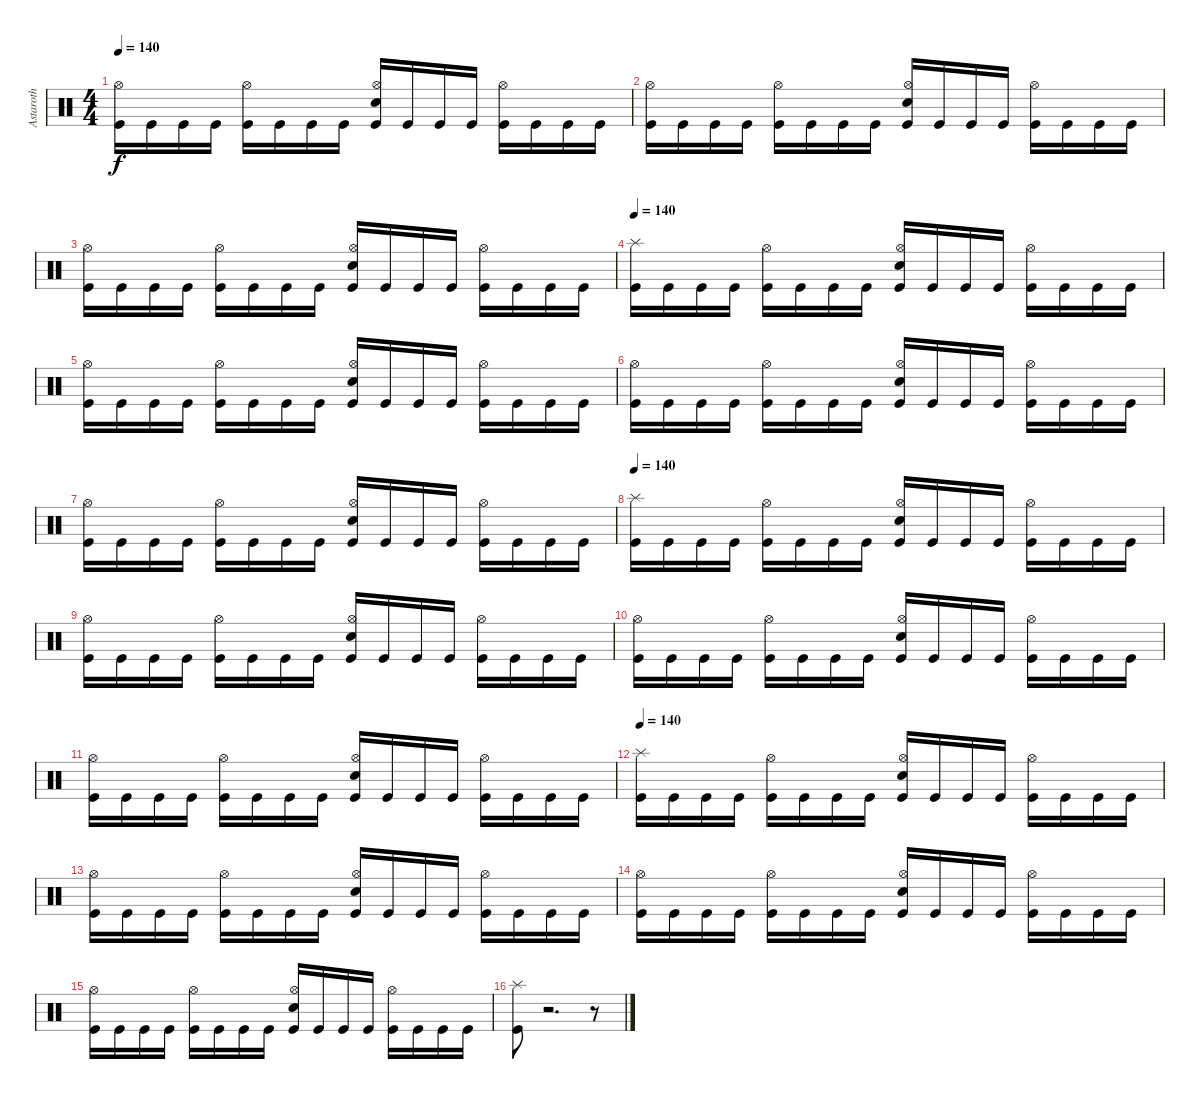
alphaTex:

\track ("Astaroth" "Astaroth") {instrument percussion}
\staff {score}
\articulation defaults
\ts (4 4)
\tempo 140
\clef neutral
\ks c
("Kick (hit)" "Hi-Hat (open)").16{dy f} "Kick (hit)".16 "Kick (hit)".16 "Kick (hit)".16 ("Kick (hit)" "Hi-Hat (open)").16 "Kick (hit)".16 "Kick (hit)".16 "Kick (hit)".16 ("Kick (hit)" "Hi-Hat (open)" "Electric Snare (hit)").16 "Kick (hit)".16 "Kick (hit)".16 "Kick (hit)".16 ("Kick (hit)" "Hi-Hat (open)").16 "Kick (hit)".16 "Kick (hit)".16 "Kick (hit)".16 |
("Kick (hit)" "Hi-Hat (open)").16 "Kick (hit)".16 "Kick (hit)".16 "Kick (hit)".16 ("Kick (hit)" "Hi-Hat (open)").16 "Kick (hit)".16 "Kick (hit)".16 "Kick (hit)".16 ("Kick (hit)" "Hi-Hat (open)" "Electric Snare (hit)").16 "Kick (hit)".16 "Kick (hit)".16 "Kick (hit)".16 ("Kick (hit)" "Hi-Hat (open)").16 "Kick (hit)".16 "Kick (hit)".16 "Kick (hit)".16 |
("Kick (hit)" "Hi-Hat (open)").16 "Kick (hit)".16 "Kick (hit)".16 "Kick (hit)".16 ("Kick (hit)" "Hi-Hat (open)").16 "Kick (hit)".16 "Kick (hit)".16 "Kick (hit)".16 ("Kick (hit)" "Hi-Hat (open)" "Electric Snare (hit)").16 "Kick (hit)".16 "Kick (hit)".16 "Kick (hit)".16 ("Kick (hit)" "Hi-Hat (open)").16 "Kick (hit)".16 "Kick (hit)".16 "Kick (hit)".16 |
\tempo 140
("Kick (hit)" "Splash (hit)").16 "Kick (hit)".16 "Kick (hit)".16 "Kick (hit)".16 ("Kick (hit)" "Hi-Hat (open)").16 "Kick (hit)".16 "Kick (hit)".16 "Kick (hit)".16 ("Kick (hit)" "Hi-Hat (open)" "Electric Snare (hit)").16 "Kick (hit)".16 "Kick (hit)".16 "Kick (hit)".16 ("Kick (hit)" "Hi-Hat (open)").16 "Kick (hit)".16 "Kick (hit)".16 "Kick (hit)".16 |
("Kick (hit)" "Hi-Hat (open)").16 "Kick (hit)".16 "Kick (hit)".16 "Kick (hit)".16 ("Kick (hit)" "Hi-Hat (open)").16 "Kick (hit)".16 "Kick (hit)".16 "Kick (hit)".16 ("Kick (hit)" "Hi-Hat (open)" "Electric Snare (hit)").16 "Kick (hit)".16 "Kick (hit)".16 "Kick (hit)".16 ("Kick (hit)" "Hi-Hat (open)").16 "Kick (hit)".16 "Kick (hit)".16 "Kick (hit)".16 |
("Kick (hit)" "Hi-Hat (open)").16 "Kick (hit)".16 "Kick (hit)".16 "Kick (hit)".16 ("Kick (hit)" "Hi-Hat (open)").16 "Kick (hit)".16 "Kick (hit)".16 "Kick (hit)".16 ("Kick (hit)" "Hi-Hat (open)" "Electric Snare (hit)").16 "Kick (hit)".16 "Kick (hit)".16 "Kick (hit)".16 ("Kick (hit)" "Hi-Hat (open)").16 "Kick (hit)".16 "Kick (hit)".16 "Kick (hit)".16 |
("Kick (hit)" "Hi-Hat (open)").16 "Kick (hit)".16 "Kick (hit)".16 "Kick (hit)".16 ("Kick (hit)" "Hi-Hat (open)").16 "Kick (hit)".16 "Kick (hit)".16 "Kick (hit)".16 ("Kick (hit)" "Hi-Hat (open)" "Electric Snare (hit)").16 "Kick (hit)".16 "Kick (hit)".16 "Kick (hit)".16 ("Kick (hit)" "Hi-Hat (open)").16 "Kick (hit)".16 "Kick (hit)".16 "Kick (hit)".16 |
\tempo 140
("Kick (hit)" "Splash (hit)").16 "Kick (hit)".16 "Kick (hit)".16 "Kick (hit)".16 ("Kick (hit)" "Hi-Hat (open)").16 "Kick (hit)".16 "Kick (hit)".16 "Kick (hit)".16 ("Kick (hit)" "Hi-Hat (open)" "Electric Snare (hit)").16 "Kick (hit)".16 "Kick (hit)".16 "Kick (hit)".16 ("Kick (hit)" "Hi-Hat (open)").16 "Kick (hit)".16 "Kick (hit)".16 "Kick (hit)".16 |
("Kick (hit)" "Hi-Hat (open)").16 "Kick (hit)".16 "Kick (hit)".16 "Kick (hit)".16 ("Kick (hit)" "Hi-Hat (open)").16 "Kick (hit)".16 "Kick (hit)".16 "Kick (hit)".16 ("Kick (hit)" "Hi-Hat (open)" "Electric Snare (hit)").16 "Kick (hit)".16 "Kick (hit)".16 "Kick (hit)".16 ("Kick (hit)" "Hi-Hat (open)").16 "Kick (hit)".16 "Kick (hit)".16 "Kick (hit)".16 |
("Kick (hit)" "Hi-Hat (open)").16 "Kick (hit)".16 "Kick (hit)".16 "Kick (hit)".16 ("Kick (hit)" "Hi-Hat (open)").16 "Kick (hit)".16 "Kick (hit)".16 "Kick (hit)".16 ("Kick (hit)" "Hi-Hat (open)" "Electric Snare (hit)").16 "Kick (hit)".16 "Kick (hit)".16 "Kick (hit)".16 ("Kick (hit)" "Hi-Hat (open)").16 "Kick (hit)".16 "Kick (hit)".16 "Kick (hit)".16 |
("Kick (hit)" "Hi-Hat (open)").16 "Kick (hit)".16 "Kick (hit)".16 "Kick (hit)".16 ("Kick (hit)" "Hi-Hat (open)").16 "Kick (hit)".16 "Kick (hit)".16 "Kick (hit)".16 ("Kick (hit)" "Hi-Hat (open)" "Electric Snare (hit)").16 "Kick (hit)".16 "Kick (hit)".16 "Kick (hit)".16 ("Kick (hit)" "Hi-Hat (open)").16 "Kick (hit)".16 "Kick (hit)".16 "Kick (hit)".16 |
\tempo 140
("Kick (hit)" "Splash (hit)").16 "Kick (hit)".16 "Kick (hit)".16 "Kick (hit)".16 ("Kick (hit)" "Hi-Hat (open)").16 "Kick (hit)".16 "Kick (hit)".16 "Kick (hit)".16 ("Kick (hit)" "Hi-Hat (open)" "Electric Snare (hit)").16 "Kick (hit)".16 "Kick (hit)".16 "Kick (hit)".16 ("Kick (hit)" "Hi-Hat (open)").16 "Kick (hit)".16 "Kick (hit)".16 "Kick (hit)".16 |
("Kick (hit)" "Hi-Hat (open)").16 "Kick (hit)".16 "Kick (hit)".16 "Kick (hit)".16 ("Kick (hit)" "Hi-Hat (open)").16 "Kick (hit)".16 "Kick (hit)".16 "Kick (hit)".16 ("Kick (hit)" "Hi-Hat (open)" "Electric Snare (hit)").16 "Kick (hit)".16 "Kick (hit)".16 "Kick (hit)".16 ("Kick (hit)" "Hi-Hat (open)").16 "Kick (hit)".16 "Kick (hit)".16 "Kick (hit)".16 |
("Kick (hit)" "Hi-Hat (open)").16 "Kick (hit)".16 "Kick (hit)".16 "Kick (hit)".16 ("Kick (hit)" "Hi-Hat (open)").16 "Kick (hit)".16 "Kick (hit)".16 "Kick (hit)".16 ("Kick (hit)" "Hi-Hat (open)" "Electric Snare (hit)").16 "Kick (hit)".16 "Kick (hit)".16 "Kick (hit)".16 ("Kick (hit)" "Hi-Hat (open)").16 "Kick (hit)".16 "Kick (hit)".16 "Kick (hit)".16 |
("Kick (hit)" "Hi-Hat (open)").16 "Kick (hit)".16 "Kick (hit)".16 "Kick (hit)".16 ("Kick (hit)" "Hi-Hat (open)").16 "Kick (hit)".16 "Kick (hit)".16 "Kick (hit)".16 ("Kick (hit)" "Hi-Hat (open)" "Electric Snare (hit)").16 "Kick (hit)".16 "Kick (hit)".16 "Kick (hit)".16 ("Kick (hit)" "Hi-Hat (open)").16 "Kick (hit)".16 "Kick (hit)".16 "Kick (hit)".16 |
("Kick (hit)" "Splash (hit)").8 r.2{d} r.8
